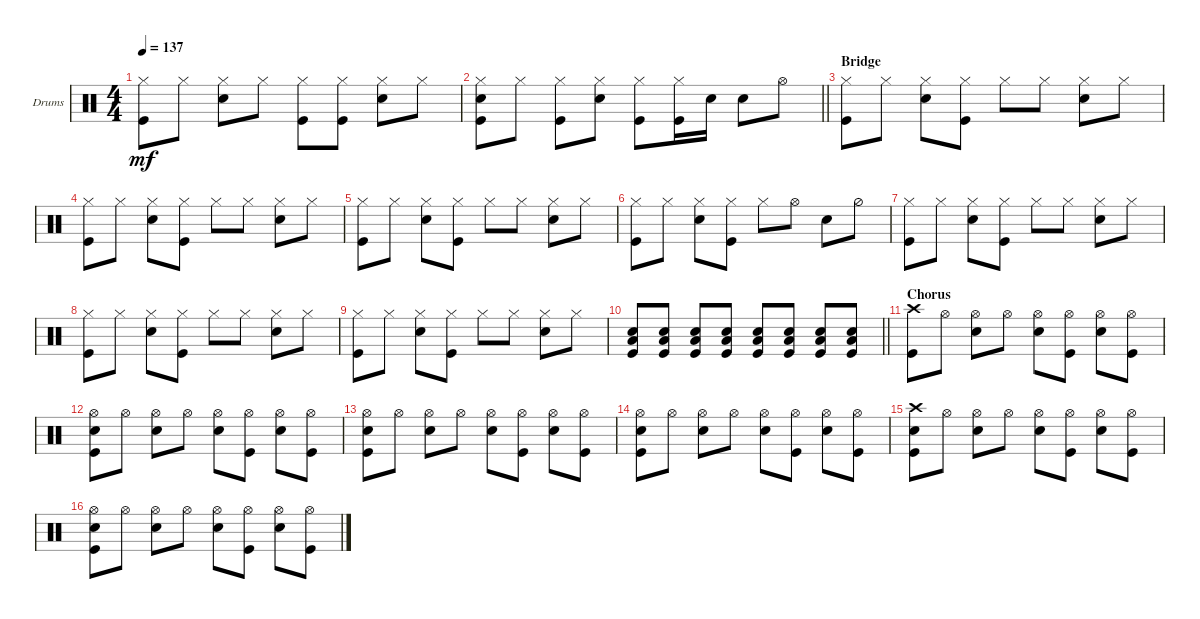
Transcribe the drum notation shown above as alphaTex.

\bracketExtendMode groupsimilarinstruments
\firstSystemTrackNameOrientation horizontal
\otherSystemsTrackNameOrientation horizontal
\track ("Fabrizio" "Drums") {instrument percussion}
\staff {score}
\articulation defaults
\ts (4 4)
\tempo 137
\clef neutral
\scale
0.333333
\ks c
("Kick (hit)" "Hi-Hat (closed)").8{dy mf} "Hi-Hat (closed)".8 ("Snare (hit) 2" "Hi-Hat (closed)").8 "Hi-Hat (closed)".8 ("Hi-Hat (closed)" "Kick (hit)").8 ("Hi-Hat (closed)" "Kick (hit)").8 ("Hi-Hat (closed)" "Snare (hit) 2").8 "Hi-Hat (closed)".8 |
\scale
0.333333
\barLineRight lightlight
("Snare (hit) 2" "Hi-Hat (closed)" "Kick (hit)").8 "Hi-Hat (closed)".8 ("Kick (hit)" "Hi-Hat (closed)").8 ("Snare (hit) 2" "Hi-Hat (closed)").8 ("Kick (hit)" "Hi-Hat (closed)").8 ("Hi-Hat (closed)" "Kick (hit)").16 "Snare (hit) 2".16 "Snare (hit) 2".8 "Hi-Hat (open)".8 |
\section ("" "Bridge")
\scale
0.333333 ("Kick (hit)" "Hi-Hat (closed)").8 "Hi-Hat (closed)".8 ("Hi-Hat (closed)" "Snare (hit) 2").8 ("Hi-Hat (closed)" "Kick (hit)").8 "Hi-Hat (closed)".8 "Hi-Hat (closed)".8 ("Hi-Hat (closed)" "Snare (hit) 2").8 "Hi-Hat (closed)".8 |
\scale
0.333333 ("Kick (hit)" "Hi-Hat (closed)").8 "Hi-Hat (closed)".8 ("Hi-Hat (closed)" "Snare (hit) 2").8 ("Hi-Hat (closed)" "Kick (hit)").8 "Hi-Hat (closed)".8 "Hi-Hat (closed)".8 ("Hi-Hat (closed)" "Snare (hit) 2").8 "Hi-Hat (closed)".8 |
\scale
0.333333 ("Kick (hit)" "Hi-Hat (closed)").8 "Hi-Hat (closed)".8 ("Hi-Hat (closed)" "Snare (hit) 2").8 ("Hi-Hat (closed)" "Kick (hit)").8 "Hi-Hat (closed)".8 "Hi-Hat (closed)".8 ("Hi-Hat (closed)" "Snare (hit) 2").8 "Hi-Hat (closed)".8 |
\scale
0.333333 ("Kick (hit)" "Hi-Hat (closed)").8 "Hi-Hat (closed)".8 ("Hi-Hat (closed)" "Snare (hit) 2").8 ("Hi-Hat (closed)" "Kick (hit)").8 "Hi-Hat (closed)".8 "Hi-Hat (open)".8 "Snare (hit) 2".8 "Hi-Hat (half)".8 |
\scale
0.333333 ("Kick (hit)" "Hi-Hat (closed)").8 "Hi-Hat (closed)".8 ("Hi-Hat (closed)" "Snare (hit) 2").8 ("Hi-Hat (closed)" "Kick (hit)").8 "Hi-Hat (closed)".8 "Hi-Hat (closed)".8 ("Hi-Hat (closed)" "Snare (hit) 2").8 "Hi-Hat (closed)".8 |
\scale
0.333333 ("Kick (hit)" "Hi-Hat (closed)").8 "Hi-Hat (closed)".8 ("Hi-Hat (closed)" "Snare (hit) 2").8 ("Hi-Hat (closed)" "Kick (hit)").8 "Hi-Hat (closed)".8 "Hi-Hat (closed)".8 ("Hi-Hat (closed)" "Snare (hit) 2").8 "Hi-Hat (closed)".8 |
\scale
0.333333 ("Kick (hit)" "Hi-Hat (closed)").8 "Hi-Hat (closed)".8 ("Hi-Hat (closed)" "Snare (hit) 2").8 ("Hi-Hat (closed)" "Kick (hit)").8 "Hi-Hat (closed)".8 "Hi-Hat (closed)".8 ("Hi-Hat (closed)" "Snare (hit) 2").8 "Hi-Hat (closed)".8 |
\scale
0.333333
\barLineRight lightlight
("Kick (hit)" "Snare (hit) 2" "Low Tom (hit)").8 ("Kick (hit)" "Snare (hit) 2" "Low Tom (hit)").8 ("Kick (hit)" "Snare (hit) 2" "Low Tom (hit)").8 ("Kick (hit)" "Snare (hit) 2" "Low Tom (hit)").8 ("Kick (hit)" "Snare (hit) 2" "Low Tom (hit)").8 ("Kick (hit)" "Snare (hit) 2" "Low Tom (hit)").8 ("Kick (hit)" "Snare (hit) 2" "Low Tom (hit)").8 ("Kick (hit)" "Snare (hit) 2" "Low Tom (hit)").8 |
\section ("" "Chorus")
\scale
0.333333 ("Crash high (hit)" "Kick (hit)").8 "Hi-Hat (open)".8 ("Hi-Hat (open)" "Snare (hit) 2").8 "Hi-Hat (open)".8 ("Hi-Hat (open)" "Snare (hit) 2").8 ("Hi-Hat (open)" "Kick (hit)").8 ("Hi-Hat (open)" "Snare (hit) 2").8 ("Hi-Hat (open)" "Kick (hit)").8 |
\scale
0.333333 ("Hi-Hat (open)" "Snare (hit) 2" "Kick (hit)").8 "Hi-Hat (open)".8 ("Hi-Hat (open)" "Snare (hit) 2").8 "Hi-Hat (open)".8 ("Hi-Hat (open)" "Snare (hit) 2").8 ("Hi-Hat (open)" "Kick (hit)").8 ("Hi-Hat (open)" "Snare (hit) 2").8 ("Hi-Hat (open)" "Kick (hit)").8 |
\scale
0.333333 ("Hi-Hat (open)" "Snare (hit) 2" "Kick (hit)").8 "Hi-Hat (open)".8 ("Hi-Hat (open)" "Snare (hit) 2").8 "Hi-Hat (open)".8 ("Hi-Hat (open)" "Snare (hit) 2").8 ("Hi-Hat (open)" "Kick (hit)").8 ("Hi-Hat (open)" "Snare (hit) 2").8 ("Hi-Hat (open)" "Kick (hit)").8 |
\scale
0.333333 ("Hi-Hat (open)" "Snare (hit) 2" "Kick (hit)").8 "Hi-Hat (open)".8 ("Hi-Hat (open)" "Snare (hit) 2").8 "Hi-Hat (open)".8 ("Hi-Hat (open)" "Snare (hit) 2").8 ("Hi-Hat (open)" "Kick (hit)").8 ("Hi-Hat (open)" "Snare (hit) 2").8 ("Hi-Hat (open)" "Kick (hit)").8 |
\scale
0.333333 ("Crash high (hit)" "Kick (hit)" "Snare (hit) 2").8 "Hi-Hat (open)".8 ("Hi-Hat (open)" "Snare (hit) 2").8 "Hi-Hat (open)".8 ("Hi-Hat (open)" "Snare (hit) 2").8 ("Hi-Hat (open)" "Kick (hit)").8 ("Hi-Hat (open)" "Snare (hit) 2").8 ("Hi-Hat (open)" "Kick (hit)").8 |
\scale
0.333333 ("Hi-Hat (open)" "Snare (hit) 2" "Kick (hit)").8 "Hi-Hat (open)".8 ("Hi-Hat (open)" "Snare (hit) 2").8 "Hi-Hat (open)".8 ("Hi-Hat (open)" "Snare (hit) 2").8 ("Hi-Hat (open)" "Kick (hit)").8 ("Hi-Hat (open)" "Snare (hit) 2").8 ("Hi-Hat (open)" "Kick (hit)").8
